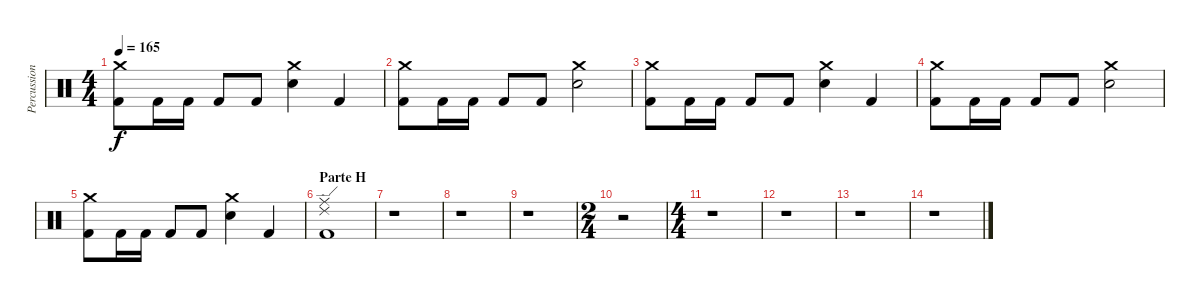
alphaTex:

\track ("Percussion" "Percussion") {instrument percussion}
\staff {score}
\articulation defaults
\ts (4 4)
\tempo 165
\clef neutral
\ks c
("Crash medium (hit)" "Kick (hit) 2").8{dy f} "Kick (hit) 2".16 "Kick (hit) 2".16 "Kick (hit) 2".8 "Kick (hit) 2".8 ("Crash medium (hit)" "Snare (hit) 2").4 "Kick (hit) 2".4 |
("Crash medium (hit)" "Kick (hit) 2").8 "Kick (hit) 2".16 "Kick (hit) 2".16 "Kick (hit) 2".8 "Kick (hit) 2".8 ("Crash medium (hit)" "Snare (hit) 2").2 |
("Crash medium (hit)" "Kick (hit) 2").8 "Kick (hit) 2".16 "Kick (hit) 2".16 "Kick (hit) 2".8 "Kick (hit) 2".8 ("Crash medium (hit)" "Snare (hit) 2").4 "Kick (hit) 2".4 |
("Crash medium (hit)" "Kick (hit) 2").8 "Kick (hit) 2".16 "Kick (hit) 2".16 "Kick (hit) 2".8 "Kick (hit) 2".8 ("Crash medium (hit)" "Snare (hit) 2").2 |
("Crash medium (hit)" "Kick (hit) 2").8 "Kick (hit) 2".16 "Kick (hit) 2".16 "Kick (hit) 2".8 "Kick (hit) 2".8 ("Crash medium (hit)" "Snare (hit) 2").4 "Kick (hit) 2".4 |
\section ("" "Parte H")
("Ride (edge) 2" "Ride (middle)" "Kick (hit) 2").1 |
r.1 |
r.1 |
r.1 |
\ts (2 4)
r.2 |
\ts (4 4)
r.1 |
r.1 |
r.1 |
r.1
